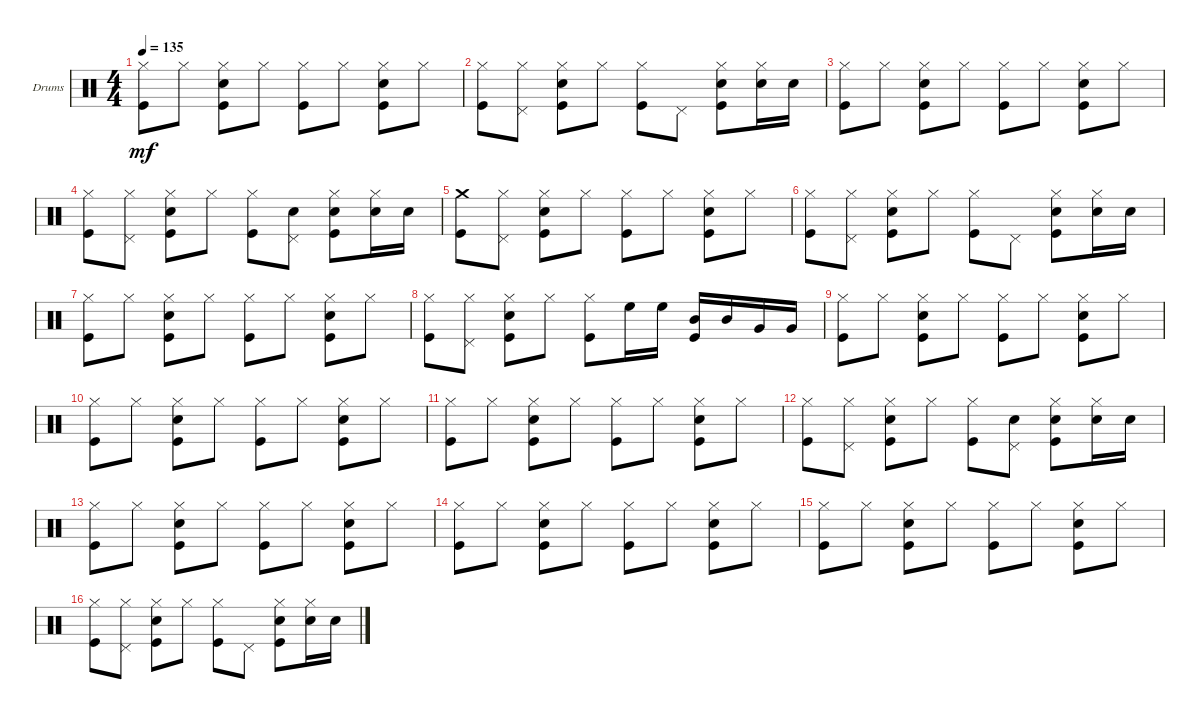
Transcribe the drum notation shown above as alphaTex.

\bracketExtendMode groupsimilarinstruments
\firstSystemTrackNameOrientation horizontal
\otherSystemsTrackNameOrientation horizontal
\track ("Drumkit" "Drums") {instrument percussion}
\staff {score}
\articulation defaults
\ts (4 4)
\tempo 135
\clef neutral
\ks c
("Kick (hit)" "Hi-Hat (closed)").8{dy mf} "Hi-Hat (closed)".8 ("Hi-Hat (closed)" "Snare (hit) 2" "Kick (hit)").8 "Hi-Hat (closed)".8 ("Hi-Hat (closed)" "Kick (hit)").8 "Hi-Hat (closed)".8 ("Snare (hit) 2" "Hi-Hat (closed)" "Kick (hit)").8 "Hi-Hat (closed)".8 |
("Hi-Hat (closed)" "Kick (hit)").8 ("Pedal Hi-Hat (hit)" "Hi-Hat (closed)").8 ("Snare (hit) 2" "Kick (hit)" "Hi-Hat (closed)").8 "Hi-Hat (closed)".8 ("Kick (hit)" "Hi-Hat (closed)").8 "Pedal Hi-Hat (hit)".8 ("Snare (hit) 2" "Hi-Hat (closed)" "Kick (hit)").8 ("Hi-Hat (closed)" "Snare (hit) 2").16 "Snare (hit) 2".16 |
("Kick (hit)" "Hi-Hat (closed)").8 "Hi-Hat (closed)".8 ("Snare (hit) 2" "Kick (hit)" "Hi-Hat (closed)").8 "Hi-Hat (closed)".8 ("Hi-Hat (closed)" "Kick (hit)").8 "Hi-Hat (closed)".8 ("Snare (hit) 2" "Hi-Hat (closed)" "Kick (hit)").8 "Hi-Hat (closed)".8 |
("Hi-Hat (closed)" "Kick (hit)").8 ("Pedal Hi-Hat (hit)" "Hi-Hat (closed)").8 ("Hi-Hat (closed)" "Kick (hit)" "Snare (hit) 2").8 "Hi-Hat (closed)".8 ("Kick (hit)" "Hi-Hat (closed)").8 ("Snare (hit) 2" "Pedal Hi-Hat (hit)").8 ("Snare (hit) 2" "Hi-Hat (closed)" "Kick (hit)").8 ("Hi-Hat (closed)" "Snare (hit) 2").16 "Snare (hit) 2".16 |
("Crash medium (hit)" "Kick (hit)").8 ("Pedal Hi-Hat (hit)" "Hi-Hat (closed)").8 ("Kick (hit)" "Snare (hit) 2" "Hi-Hat (closed)").8 "Hi-Hat (closed)".8 ("Hi-Hat (closed)" "Kick (hit)").8 "Hi-Hat (closed)".8 ("Snare (hit) 2" "Hi-Hat (closed)" "Kick (hit)").8 "Hi-Hat (closed)".8 |
("Kick (hit)" "Hi-Hat (closed)").8 ("Pedal Hi-Hat (hit)" "Hi-Hat (closed)").8 ("Snare (hit) 2" "Kick (hit)" "Hi-Hat (closed)").8 "Hi-Hat (closed)".8 ("Hi-Hat (closed)" "Kick (hit)").8 "Pedal Hi-Hat (hit)".8 ("Snare (hit) 2" "Hi-Hat (closed)" "Kick (hit)").8 ("Hi-Hat (closed)" "Snare (hit) 2").16 "Snare (hit) 2".16 |
("Kick (hit)" "Hi-Hat (closed)").8 "Hi-Hat (closed)".8 ("Kick (hit)" "Hi-Hat (closed)" "Snare (hit) 2").8 "Hi-Hat (closed)".8 ("Hi-Hat (closed)" "Kick (hit)").8 "Hi-Hat (closed)".8 ("Snare (hit) 2" "Hi-Hat (closed)" "Kick (hit)").8 "Hi-Hat (closed)".8 |
("Kick (hit)" "Hi-Hat (closed)").8 ("Pedal Hi-Hat (hit)" "Hi-Hat (closed)").8 ("Snare (hit) 2" "Kick (hit)" "Hi-Hat (closed)").8 "Hi-Hat (closed)".8 ("Kick (hit)" "Hi-Hat (closed)").8 "High Floor Tom (hit)".16 "High Floor Tom (hit)".16 ("Kick (hit)" "Mid Tom (hit)").16 "Mid Tom (hit)".16 "Very Low Tom (hit)".16 "Very Low Tom (hit)".16 |
("Kick (hit)" "Hi-Hat (closed)").8 "Hi-Hat (closed)".8 ("Snare (hit) 2" "Hi-Hat (closed)" "Kick (hit)").8 "Hi-Hat (closed)".8 ("Hi-Hat (closed)" "Kick (hit)").8 "Hi-Hat (closed)".8 ("Snare (hit) 2" "Hi-Hat (closed)" "Kick (hit)").8 "Hi-Hat (closed)".8 |
("Hi-Hat (closed)" "Kick (hit)").8 "Hi-Hat (closed)".8 ("Snare (hit) 2" "Kick (hit)" "Hi-Hat (closed)").8 "Hi-Hat (closed)".8 ("Hi-Hat (closed)" "Kick (hit)").8 "Hi-Hat (closed)".8 ("Snare (hit) 2" "Hi-Hat (closed)" "Kick (hit)").8 "Hi-Hat (closed)".8 |
("Hi-Hat (closed)" "Kick (hit)").8 "Hi-Hat (closed)".8 ("Kick (hit)" "Snare (hit) 2" "Hi-Hat (closed)").8 "Hi-Hat (closed)".8 ("Hi-Hat (closed)" "Kick (hit)").8 "Hi-Hat (closed)".8 ("Hi-Hat (closed)" "Kick (hit)" "Snare (hit) 2").8 "Hi-Hat (closed)".8 |
("Hi-Hat (closed)" "Kick (hit)").8 ("Pedal Hi-Hat (hit)" "Hi-Hat (closed)").8 ("Hi-Hat (closed)" "Kick (hit)" "Snare (hit) 2").8 "Hi-Hat (closed)".8 ("Kick (hit)" "Hi-Hat (closed)").8 ("Snare (hit) 2" "Pedal Hi-Hat (hit)").8 ("Snare (hit) 2" "Hi-Hat (closed)" "Kick (hit)").8 ("Hi-Hat (closed)" "Snare (hit) 2").16 "Snare (hit) 2".16 |
("Kick (hit)" "Hi-Hat (closed)").8 "Hi-Hat (closed)".8 ("Hi-Hat (closed)" "Kick (hit)" "Snare (hit) 2").8 "Hi-Hat (closed)".8 ("Kick (hit)" "Hi-Hat (closed)").8 "Hi-Hat (closed)".8 ("Snare (hit) 2" "Hi-Hat (closed)" "Kick (hit)").8 "Hi-Hat (closed)".8 |
("Kick (hit)" "Hi-Hat (closed)").8 "Hi-Hat (closed)".8 ("Hi-Hat (closed)" "Kick (hit)" "Snare (hit) 2").8 "Hi-Hat (closed)".8 ("Kick (hit)" "Hi-Hat (closed)").8 "Hi-Hat (closed)".8 ("Snare (hit) 2" "Hi-Hat (closed)" "Kick (hit)").8 "Hi-Hat (closed)".8 |
("Kick (hit)" "Hi-Hat (closed)").8 "Hi-Hat (closed)".8 ("Kick (hit)" "Hi-Hat (closed)" "Snare (hit) 2").8 "Hi-Hat (closed)".8 ("Hi-Hat (closed)" "Kick (hit)").8 "Hi-Hat (closed)".8 ("Snare (hit) 2" "Hi-Hat (closed)" "Kick (hit)").8 "Hi-Hat (closed)".8 |
("Kick (hit)" "Hi-Hat (closed)").8 ("Hi-Hat (closed)" "Pedal Hi-Hat (hit)").8 ("Snare (hit) 2" "Hi-Hat (closed)" "Kick (hit)").8 "Hi-Hat (closed)".8 ("Hi-Hat (closed)" "Kick (hit)").8 "Pedal Hi-Hat (hit)".8 ("Snare (hit) 2" "Hi-Hat (closed)" "Kick (hit)").8 ("Hi-Hat (closed)" "Snare (hit) 2").16 "Snare (hit) 2".16
